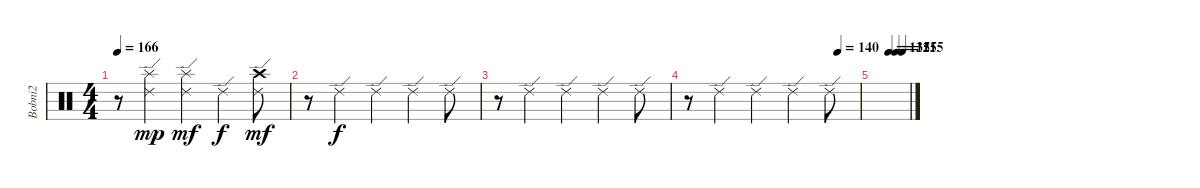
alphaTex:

\track ("Bobni2" "Bobni2") {instrument percussion}
\staff {score}
\articulation defaults
\ts (4 4)
\tempo 166
\clef neutral
\ks c
r.8{dy f} ("Ride (edge) 2" "Splash (hit)").4{dy mp} ("Ride (edge) 2" "Splash (hit)").4{dy mf} "Ride (edge) 2".4{dy f} ("Ride (edge) 2" "Crash high (hit)").8{dy mf} |
r.8 "Ride (edge) 2".4{dy f} "Ride (edge) 2".4 "Ride (edge) 2".4 "Ride (edge) 2".8 |
r.8 "Ride (edge) 2".4 "Ride (edge) 2".4 "Ride (edge) 2".4 "Ride (edge) 2".8 |
\tempo (140 0.875)
r.8 "Ride (edge) 2".4 "Ride (edge) 2".4 "Ride (edge) 2".4 "Ride (edge) 2".8 |
\tempo (135 0.4375)
\tempo (125 0.625)
\tempo (115 0.8125)
